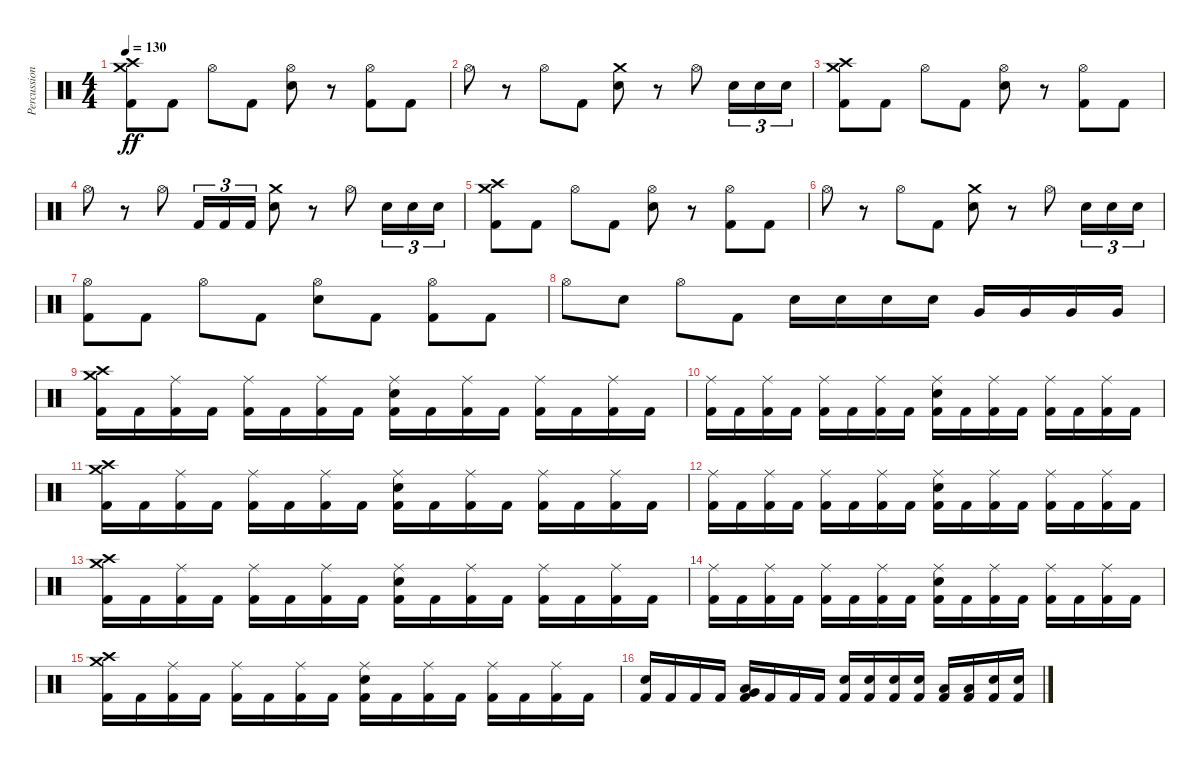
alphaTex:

\track ("Percussion" "Percussion") {instrument percussion}
\staff {score}
\articulation defaults
\ts (4 4)
\tempo 130
\clef neutral
\ks c
("Kick (hit) 2" "Crash high (hit)" "Crash medium (hit)").8{dy ff} "Kick (hit) 2".8 "Hi-Hat (open)".8 "Kick (hit) 2".8 ("Electric Snare (hit)" "Hi-Hat (open)").8 r.8 ("Kick (hit) 2" "Hi-Hat (open)").8 "Kick (hit) 2".8 |
"Hi-Hat (open)".8 r.8 "Hi-Hat (open)".8 "Kick (hit) 2".8 ("Electric Snare (hit)" "Crash medium (hit)").8 r.8 "Hi-Hat (open)".8 "Electric Snare (hit)".16{tu (3 2)} "Electric Snare (hit)".16{tu (3 2)} "Electric Snare (hit)".16{tu (3 2)} |
("Kick (hit) 2" "Crash high (hit)" "Crash medium (hit)").8 "Kick (hit) 2".8 "Hi-Hat (open)".8 "Kick (hit) 2".8 ("Electric Snare (hit)" "Hi-Hat (open)").8 r.8 ("Kick (hit) 2" "Hi-Hat (open)").8 "Kick (hit) 2".8 |
"Hi-Hat (open)".8 r.8 "Hi-Hat (open)".8 "Kick (hit) 2".16{tu (3 2)} "Kick (hit) 2".16{tu (3 2)} "Kick (hit) 2".16{tu (3 2)} ("Electric Snare (hit)" "Crash medium (hit)").8 r.8 "Hi-Hat (open)".8 "Electric Snare (hit)".16{tu (3 2)} "Electric Snare (hit)".16{tu (3 2)} "Electric Snare (hit)".16{tu (3 2)} |
("Kick (hit) 2" "Crash high (hit)" "Crash medium (hit)").8 "Kick (hit) 2".8 "Hi-Hat (open)".8 "Kick (hit) 2".8 ("Electric Snare (hit)" "Hi-Hat (open)").8 r.8 ("Kick (hit) 2" "Hi-Hat (open)").8 "Kick (hit) 2".8 |
"Hi-Hat (open)".8 r.8 "Hi-Hat (open)".8 "Kick (hit) 2".8 ("Electric Snare (hit)" "Crash medium (hit)").8 r.8 "Hi-Hat (open)".8 "Electric Snare (hit)".16{tu (3 2)} "Electric Snare (hit)".16{tu (3 2)} "Electric Snare (hit)".16{tu (3 2)} |
("Kick (hit) 2" "Hi-Hat (open)").8 "Kick (hit) 2".8 "Hi-Hat (open)".8 "Kick (hit) 2".8 ("Electric Snare (hit)" "Hi-Hat (open)").8 "Kick (hit) 2".8 ("Kick (hit) 2" "Hi-Hat (open)").8 "Kick (hit) 2".8 |
"Hi-Hat (open)".8 "Electric Snare (hit)".8 "Hi-Hat (open)".8 "Kick (hit) 2".8 "Electric Snare (hit)".16 "Electric Snare (hit)".16 "Electric Snare (hit)".16 "Electric Snare (hit)".16 "Very Low Tom (hit)".16 "Very Low Tom (hit)".16 "Very Low Tom (hit)".16 "Very Low Tom (hit)".16 |
("Kick (hit) 2" "Crash high (hit)" "Crash medium (hit)").16 "Kick (hit) 2".16 ("Kick (hit) 2" "Ride (middle)").16 "Kick (hit) 2".16 ("Kick (hit) 2" "Ride (middle)").16 "Kick (hit) 2".16 ("Kick (hit) 2" "Ride (middle)").16 "Kick (hit) 2".16 ("Kick (hit) 2" "Electric Snare (hit)" "Ride (middle)").16 "Kick (hit) 2".16 ("Kick (hit) 2" "Ride (middle)").16 "Kick (hit) 2".16 ("Kick (hit) 2" "Ride (middle)").16 "Kick (hit) 2".16 ("Kick (hit) 2" "Ride (middle)").16 "Kick (hit) 2".16 |
("Kick (hit) 2" "Ride (middle)").16 "Kick (hit) 2".16 ("Kick (hit) 2" "Ride (middle)").16 "Kick (hit) 2".16 ("Kick (hit) 2" "Ride (middle)").16 "Kick (hit) 2".16 ("Kick (hit) 2" "Ride (middle)").16 "Kick (hit) 2".16 ("Kick (hit) 2" "Electric Snare (hit)" "Ride (middle)").16 "Kick (hit) 2".16 ("Kick (hit) 2" "Ride (middle)").16 "Kick (hit) 2".16 ("Kick (hit) 2" "Ride (middle)").16 "Kick (hit) 2".16 ("Kick (hit) 2" "Ride (middle)").16 "Kick (hit) 2".16 |
("Kick (hit) 2" "Crash high (hit)" "Crash medium (hit)").16 "Kick (hit) 2".16 ("Kick (hit) 2" "Ride (middle)").16 "Kick (hit) 2".16 ("Kick (hit) 2" "Ride (middle)").16 "Kick (hit) 2".16 ("Kick (hit) 2" "Ride (middle)").16 "Kick (hit) 2".16 ("Kick (hit) 2" "Electric Snare (hit)" "Ride (middle)").16 "Kick (hit) 2".16 ("Kick (hit) 2" "Ride (middle)").16 "Kick (hit) 2".16 ("Kick (hit) 2" "Ride (middle)").16 "Kick (hit) 2".16 ("Kick (hit) 2" "Ride (middle)").16 "Kick (hit) 2".16 |
("Kick (hit) 2" "Ride (middle)").16 "Kick (hit) 2".16 ("Kick (hit) 2" "Ride (middle)").16 "Kick (hit) 2".16 ("Kick (hit) 2" "Ride (middle)").16 "Kick (hit) 2".16 ("Kick (hit) 2" "Ride (middle)").16 "Kick (hit) 2".16 ("Kick (hit) 2" "Electric Snare (hit)" "Ride (middle)").16 "Kick (hit) 2".16 ("Kick (hit) 2" "Ride (middle)").16 "Kick (hit) 2".16 ("Kick (hit) 2" "Ride (middle)").16 "Kick (hit) 2".16 ("Kick (hit) 2" "Ride (middle)").16 "Kick (hit) 2".16 |
("Kick (hit) 2" "Crash high (hit)" "Crash medium (hit)").16 "Kick (hit) 2".16 ("Kick (hit) 2" "Ride (middle)").16 "Kick (hit) 2".16 ("Kick (hit) 2" "Ride (middle)").16 "Kick (hit) 2".16 ("Kick (hit) 2" "Ride (middle)").16 "Kick (hit) 2".16 ("Kick (hit) 2" "Electric Snare (hit)" "Ride (middle)").16 "Kick (hit) 2".16 ("Kick (hit) 2" "Ride (middle)").16 "Kick (hit) 2".16 ("Kick (hit) 2" "Ride (middle)").16 "Kick (hit) 2".16 ("Kick (hit) 2" "Ride (middle)").16 "Kick (hit) 2".16 |
("Kick (hit) 2" "Ride (middle)").16 "Kick (hit) 2".16 ("Kick (hit) 2" "Ride (middle)").16 "Kick (hit) 2".16 ("Kick (hit) 2" "Ride (middle)").16 "Kick (hit) 2".16 ("Kick (hit) 2" "Ride (middle)").16 "Kick (hit) 2".16 ("Kick (hit) 2" "Electric Snare (hit)" "Ride (middle)").16 "Kick (hit) 2".16 ("Kick (hit) 2" "Ride (middle)").16 "Kick (hit) 2".16 ("Kick (hit) 2" "Ride (middle)").16 "Kick (hit) 2".16 ("Kick (hit) 2" "Ride (middle)").16 "Kick (hit) 2".16 |
("Kick (hit) 2" "Crash high (hit)" "Crash medium (hit)").16 "Kick (hit) 2".16 ("Kick (hit) 2" "Ride (middle)").16 "Kick (hit) 2".16 ("Kick (hit) 2" "Ride (middle)").16 "Kick (hit) 2".16 ("Kick (hit) 2" "Ride (middle)").16 "Kick (hit) 2".16 ("Kick (hit) 2" "Electric Snare (hit)" "Ride (middle)").16 "Kick (hit) 2".16 ("Kick (hit) 2" "Ride (middle)").16 "Kick (hit) 2".16 ("Kick (hit) 2" "Ride (middle)").16 "Kick (hit) 2".16 ("Kick (hit) 2" "Ride (middle)").16 "Kick (hit) 2".16 |
("Kick (hit) 2" "Electric Snare (hit)").16 "Kick (hit) 2".16 "Kick (hit) 2".16 "Kick (hit) 2".16 ("Kick (hit) 2" "Low Tom (hit)" "Very Low Tom (hit)").16 "Kick (hit) 2".16 "Kick (hit) 2".16 "Kick (hit) 2".16 ("Kick (hit) 2" "Electric Snare (hit)").16 ("Kick (hit) 2" "Electric Snare (hit)").16 ("Kick (hit) 2" "Electric Snare (hit)").16 ("Kick (hit) 2" "Electric Snare (hit)").16 ("Kick (hit) 2" "Low Tom (hit)").16 ("Kick (hit) 2" "Low Tom (hit)").16 ("Kick (hit) 2" "Electric Snare (hit)").16 ("Kick (hit) 2" "Electric Snare (hit)").16
